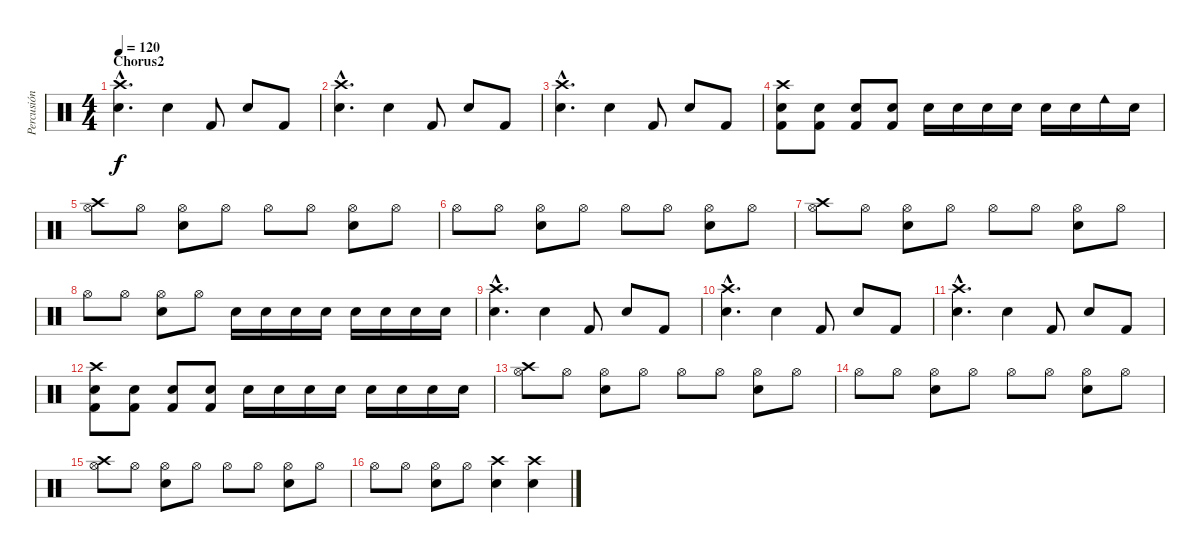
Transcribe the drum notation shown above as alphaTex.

\track ("Percusión" "Percusión") {instrument percussion}
\staff {score}
\articulation defaults
\ts (4 4)
\section ("" "Chorus2")
\tempo 120
\clef neutral
\ks c
("Crash high (hit)"{hac} "Snare (hit) 2"{hac}).4{d dy f} "Snare (hit) 2".4 "Kick (hit) 2".8 "Snare (hit) 2".8 "Kick (hit) 2".8 |
("Crash high (hit)"{hac} "Snare (hit) 2"{hac}).4{d} "Snare (hit) 2".4 "Kick (hit) 2".8 "Snare (hit) 2".8 "Kick (hit) 2".8 |
("Crash high (hit)"{hac} "Snare (hit) 2"{hac}).4{d} "Snare (hit) 2".4 "Kick (hit) 2".8 "Snare (hit) 2".8 "Kick (hit) 2".8 |
("Crash high (hit)" "Snare (hit) 2" "Kick (hit) 2").8 ("Snare (hit) 2" "Kick (hit) 2").8 ("Snare (hit) 2" "Kick (hit) 2").8 ("Snare (hit) 2" "Kick (hit) 2").8 "Snare (hit) 2".16 "Snare (hit) 2"{x}.16 "Snare (hit) 2".16 "Snare (hit) 2".16 "Snare (hit) 2".16 "Snare (hit) 2".16 "Cowbell low (hit)".16 "Snare (hit) 2".16 |
("Hi-Hat (open)" "Crash high (hit)").8 "Hi-Hat (open)".8 ("Hi-Hat (open)" "Snare (hit) 2").8 "Hi-Hat (open)".8 "Hi-Hat (open)".8 "Hi-Hat (open)".8 ("Hi-Hat (open)" "Snare (hit) 2").8 "Hi-Hat (open)".8 |
"Hi-Hat (open)".8 "Hi-Hat (open)".8 ("Hi-Hat (open)" "Snare (hit) 2").8 "Hi-Hat (open)".8 "Hi-Hat (open)".8 "Hi-Hat (open)".8 ("Hi-Hat (open)" "Snare (hit) 2").8 "Hi-Hat (open)".8 |
("Hi-Hat (open)" "Crash high (hit)").8 "Hi-Hat (open)".8 ("Hi-Hat (open)" "Snare (hit) 2").8 "Hi-Hat (open)".8 "Hi-Hat (open)".8 "Hi-Hat (open)".8 ("Hi-Hat (open)" "Snare (hit) 2").8 "Hi-Hat (open)".8 |
"Hi-Hat (open)".8 "Hi-Hat (open)".8 ("Hi-Hat (open)" "Snare (hit) 2").8 "Hi-Hat (open)".8 "Snare (hit) 2".16 "Snare (hit) 2".16 "Snare (hit) 2".16 "Snare (hit) 2"{x}.16 "Snare (hit) 2".16 "Snare (hit) 2"{x}.16 "Snare (hit) 2".16 "Snare (hit) 2".16 |
("Crash high (hit)"{hac} "Snare (hit) 2"{hac}).4{d} "Snare (hit) 2".4 "Kick (hit) 2".8 "Snare (hit) 2".8 "Kick (hit) 2".8 |
("Crash high (hit)"{hac} "Snare (hit) 2"{hac}).4{d} "Snare (hit) 2".4 "Kick (hit) 2".8 "Snare (hit) 2".8 "Kick (hit) 2".8 |
("Crash high (hit)"{hac} "Snare (hit) 2"{hac}).4{d} "Snare (hit) 2".4 "Kick (hit) 2".8 "Snare (hit) 2".8 "Kick (hit) 2".8 |
("Crash high (hit)" "Snare (hit) 2" "Kick (hit) 2").8 ("Snare (hit) 2" "Kick (hit) 2").8 ("Snare (hit) 2" "Kick (hit) 2").8 ("Snare (hit) 2" "Kick (hit) 2").8 "Snare (hit) 2".16 "Snare (hit) 2"{x}.16 "Snare (hit) 2".16 "Snare (hit) 2".16 "Snare (hit) 2".16 "Snare (hit) 2".16 "Snare (hit) 2".16 "Snare (hit) 2".16 |
("Hi-Hat (open)" "Crash high (hit)").8 "Hi-Hat (open)".8 ("Hi-Hat (open)" "Snare (hit) 2").8 "Hi-Hat (open)".8 "Hi-Hat (open)".8 "Hi-Hat (open)".8 ("Hi-Hat (open)" "Snare (hit) 2").8 "Hi-Hat (open)".8 |
"Hi-Hat (open)".8 "Hi-Hat (open)".8 ("Hi-Hat (open)" "Snare (hit) 2").8 "Hi-Hat (open)".8 "Hi-Hat (open)".8 "Hi-Hat (open)".8 ("Hi-Hat (open)" "Snare (hit) 2").8 "Hi-Hat (open)".8 |
("Hi-Hat (open)" "Crash high (hit)").8 "Hi-Hat (open)".8 ("Hi-Hat (open)" "Snare (hit) 2").8 "Hi-Hat (open)".8 "Hi-Hat (open)".8 "Hi-Hat (open)".8 ("Hi-Hat (open)" "Snare (hit) 2").8 "Hi-Hat (open)".8 |
"Hi-Hat (open)".8 "Hi-Hat (open)".8 ("Hi-Hat (open)" "Snare (hit) 2").8 "Hi-Hat (open)".8 ("Snare (hit) 2" "Crash high (hit)").4 ("Snare (hit) 2" "Crash high (hit)").4
